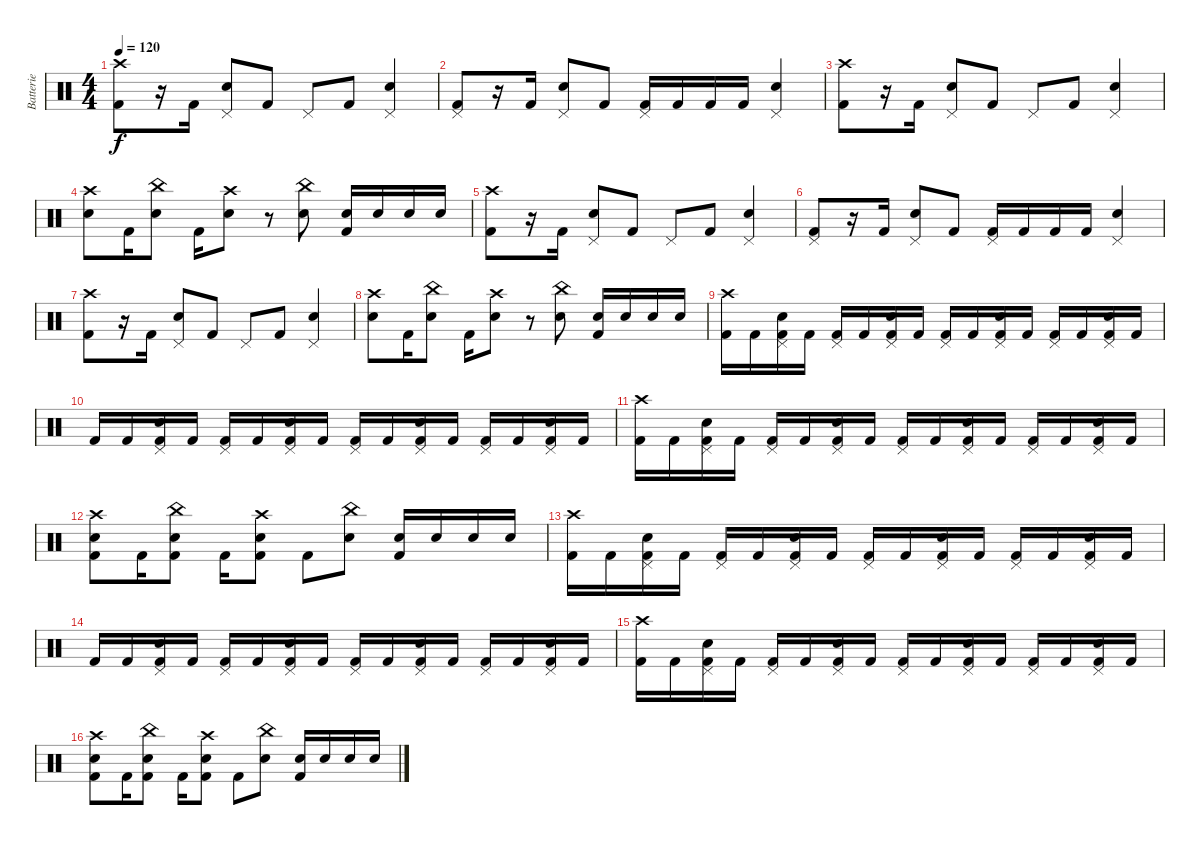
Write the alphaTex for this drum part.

\track ("Batterie" "Batterie") {instrument percussion}
\staff {score}
\articulation defaults
\ts (4 4)
\tempo 120
\clef neutral
\ks c
("Crash high (hit)" "Kick (hit) 2").8{dy f} r.16 "Kick (hit) 2".16 ("Snare (hit) 2" "Pedal Hi-Hat (hit)").8 "Kick (hit) 2".8 "Pedal Hi-Hat (hit)".8 "Kick (hit) 2".8 ("Snare (hit) 2" "Pedal Hi-Hat (hit)").4 |
("Kick (hit) 2" "Pedal Hi-Hat (hit)").8 r.16 "Kick (hit) 2".16 ("Snare (hit) 2" "Pedal Hi-Hat (hit)").8 "Kick (hit) 2".8 ("Kick (hit) 2" "Pedal Hi-Hat (hit)").16 "Kick (hit) 2".16 "Kick (hit) 2".16 "Kick (hit) 2".16 ("Snare (hit) 2" "Pedal Hi-Hat (hit)").4 |
("Crash high (hit)" "Kick (hit) 2").8 r.16 "Kick (hit) 2".16 ("Snare (hit) 2" "Pedal Hi-Hat (hit)").8 "Kick (hit) 2".8 "Pedal Hi-Hat (hit)".8 "Kick (hit) 2".8 ("Snare (hit) 2" "Pedal Hi-Hat (hit)").4 |
("Crash high (hit)" "Snare (hit) 2").8 "Kick (hit) 2".16 ("China (hit)" "Snare (hit) 2").8 "Kick (hit) 2".16 ("Crash high (hit)" "Snare (hit) 2").8 r.8 ("China (hit)" "Snare (hit) 2").8 ("Snare (hit) 2" "Kick (hit) 2").16 "Snare (hit) 2".16 "Snare (hit) 2".16 "Snare (hit) 2".16 |
("Crash high (hit)" "Kick (hit) 2").8 r.16 "Kick (hit) 2".16 ("Snare (hit) 2" "Pedal Hi-Hat (hit)").8 "Kick (hit) 2".8 "Pedal Hi-Hat (hit)".8 "Kick (hit) 2".8 ("Snare (hit) 2" "Pedal Hi-Hat (hit)").4 |
("Kick (hit) 2" "Pedal Hi-Hat (hit)").8 r.16 "Kick (hit) 2".16 ("Snare (hit) 2" "Pedal Hi-Hat (hit)").8 "Kick (hit) 2".8 ("Kick (hit) 2" "Pedal Hi-Hat (hit)").16 "Kick (hit) 2".16 "Kick (hit) 2".16 "Kick (hit) 2".16 ("Snare (hit) 2" "Pedal Hi-Hat (hit)").4 |
("Crash high (hit)" "Kick (hit) 2").8 r.16 "Kick (hit) 2".16 ("Snare (hit) 2" "Pedal Hi-Hat (hit)").8 "Kick (hit) 2".8 "Pedal Hi-Hat (hit)".8 "Kick (hit) 2".8 ("Snare (hit) 2" "Pedal Hi-Hat (hit)").4 |
("Crash high (hit)" "Snare (hit) 2").8 "Kick (hit) 2".16 ("China (hit)" "Snare (hit) 2").8 "Kick (hit) 2".16 ("Crash high (hit)" "Snare (hit) 2").8 r.8 ("China (hit)" "Snare (hit) 2").8 ("Snare (hit) 2" "Kick (hit) 2").16 "Snare (hit) 2".16 "Snare (hit) 2".16 "Snare (hit) 2".16 |
("Crash high (hit)" "Kick (hit) 2").16 "Kick (hit) 2".16 ("Snare (hit) 2" "Kick (hit) 2" "Pedal Hi-Hat (hit)").16 "Kick (hit) 2".16 ("Kick (hit) 2" "Pedal Hi-Hat (hit)").16 "Kick (hit) 2".16 ("Snare (hit) 2" "Kick (hit) 2" "Pedal Hi-Hat (hit)").16 "Kick (hit) 2".16 ("Kick (hit) 2" "Pedal Hi-Hat (hit)").16 "Kick (hit) 2".16 ("Snare (hit) 2" "Kick (hit) 2" "Pedal Hi-Hat (hit)").16 "Kick (hit) 2".16 ("Kick (hit) 2" "Pedal Hi-Hat (hit)").16 "Kick (hit) 2".16 ("Snare (hit) 2" "Kick (hit) 2" "Pedal Hi-Hat (hit)").16 "Kick (hit) 2".16 |
"Kick (hit) 2".16 "Kick (hit) 2".16 ("Snare (hit) 2" "Kick (hit) 2" "Pedal Hi-Hat (hit)").16 "Kick (hit) 2".16 ("Kick (hit) 2" "Pedal Hi-Hat (hit)").16 "Kick (hit) 2".16 ("Snare (hit) 2" "Kick (hit) 2" "Pedal Hi-Hat (hit)").16 "Kick (hit) 2".16 ("Kick (hit) 2" "Pedal Hi-Hat (hit)").16 "Kick (hit) 2".16 ("Snare (hit) 2" "Kick (hit) 2" "Pedal Hi-Hat (hit)").16 "Kick (hit) 2".16 ("Kick (hit) 2" "Pedal Hi-Hat (hit)").16 "Kick (hit) 2".16 ("Snare (hit) 2" "Kick (hit) 2" "Pedal Hi-Hat (hit)").16 "Kick (hit) 2".16 |
("Crash high (hit)" "Kick (hit) 2").16 "Kick (hit) 2".16 ("Snare (hit) 2" "Kick (hit) 2" "Pedal Hi-Hat (hit)").16 "Kick (hit) 2".16 ("Kick (hit) 2" "Pedal Hi-Hat (hit)").16 "Kick (hit) 2".16 ("Snare (hit) 2" "Kick (hit) 2" "Pedal Hi-Hat (hit)").16 "Kick (hit) 2".16 ("Kick (hit) 2" "Pedal Hi-Hat (hit)").16 "Kick (hit) 2".16 ("Snare (hit) 2" "Kick (hit) 2" "Pedal Hi-Hat (hit)").16 "Kick (hit) 2".16 ("Kick (hit) 2" "Pedal Hi-Hat (hit)").16 "Kick (hit) 2".16 ("Snare (hit) 2" "Kick (hit) 2" "Pedal Hi-Hat (hit)").16 "Kick (hit) 2".16 |
("Crash high (hit)" "Snare (hit) 2" "Kick (hit) 2").8 "Kick (hit) 2".16 ("China (hit)" "Snare (hit) 2" "Kick (hit) 2").8 "Kick (hit) 2".16 ("Crash high (hit)" "Snare (hit) 2" "Kick (hit) 2").8 "Kick (hit) 2".8 ("China (hit)" "Snare (hit) 2").8 ("Snare (hit) 2" "Kick (hit) 2").16 "Snare (hit) 2".16 "Snare (hit) 2".16 "Snare (hit) 2".16 |
("Crash high (hit)" "Kick (hit) 2").16 "Kick (hit) 2".16 ("Snare (hit) 2" "Kick (hit) 2" "Pedal Hi-Hat (hit)").16 "Kick (hit) 2".16 ("Kick (hit) 2" "Pedal Hi-Hat (hit)").16 "Kick (hit) 2".16 ("Snare (hit) 2" "Kick (hit) 2" "Pedal Hi-Hat (hit)").16 "Kick (hit) 2".16 ("Kick (hit) 2" "Pedal Hi-Hat (hit)").16 "Kick (hit) 2".16 ("Snare (hit) 2" "Kick (hit) 2" "Pedal Hi-Hat (hit)").16 "Kick (hit) 2".16 ("Kick (hit) 2" "Pedal Hi-Hat (hit)").16 "Kick (hit) 2".16 ("Snare (hit) 2" "Kick (hit) 2" "Pedal Hi-Hat (hit)").16 "Kick (hit) 2".16 |
"Kick (hit) 2".16 "Kick (hit) 2".16 ("Snare (hit) 2" "Kick (hit) 2" "Pedal Hi-Hat (hit)").16 "Kick (hit) 2".16 ("Kick (hit) 2" "Pedal Hi-Hat (hit)").16 "Kick (hit) 2".16 ("Snare (hit) 2" "Kick (hit) 2" "Pedal Hi-Hat (hit)").16 "Kick (hit) 2".16 ("Kick (hit) 2" "Pedal Hi-Hat (hit)").16 "Kick (hit) 2".16 ("Snare (hit) 2" "Kick (hit) 2" "Pedal Hi-Hat (hit)").16 "Kick (hit) 2".16 ("Kick (hit) 2" "Pedal Hi-Hat (hit)").16 "Kick (hit) 2".16 ("Snare (hit) 2" "Kick (hit) 2" "Pedal Hi-Hat (hit)").16 "Kick (hit) 2".16 |
("Crash high (hit)" "Kick (hit) 2").16 "Kick (hit) 2".16 ("Snare (hit) 2" "Kick (hit) 2" "Pedal Hi-Hat (hit)").16 "Kick (hit) 2".16 ("Kick (hit) 2" "Pedal Hi-Hat (hit)").16 "Kick (hit) 2".16 ("Snare (hit) 2" "Kick (hit) 2" "Pedal Hi-Hat (hit)").16 "Kick (hit) 2".16 ("Kick (hit) 2" "Pedal Hi-Hat (hit)").16 "Kick (hit) 2".16 ("Snare (hit) 2" "Kick (hit) 2" "Pedal Hi-Hat (hit)").16 "Kick (hit) 2".16 ("Kick (hit) 2" "Pedal Hi-Hat (hit)").16 "Kick (hit) 2".16 ("Snare (hit) 2" "Kick (hit) 2" "Pedal Hi-Hat (hit)").16 "Kick (hit) 2".16 |
("Crash high (hit)" "Snare (hit) 2" "Kick (hit) 2").8 "Kick (hit) 2".16 ("China (hit)" "Snare (hit) 2" "Kick (hit) 2").8 "Kick (hit) 2".16 ("Crash high (hit)" "Snare (hit) 2" "Kick (hit) 2").8 "Kick (hit) 2".8 ("China (hit)" "Snare (hit) 2").8 ("Snare (hit) 2" "Kick (hit) 2").16 "Snare (hit) 2".16 "Snare (hit) 2".16 "Snare (hit) 2".16
